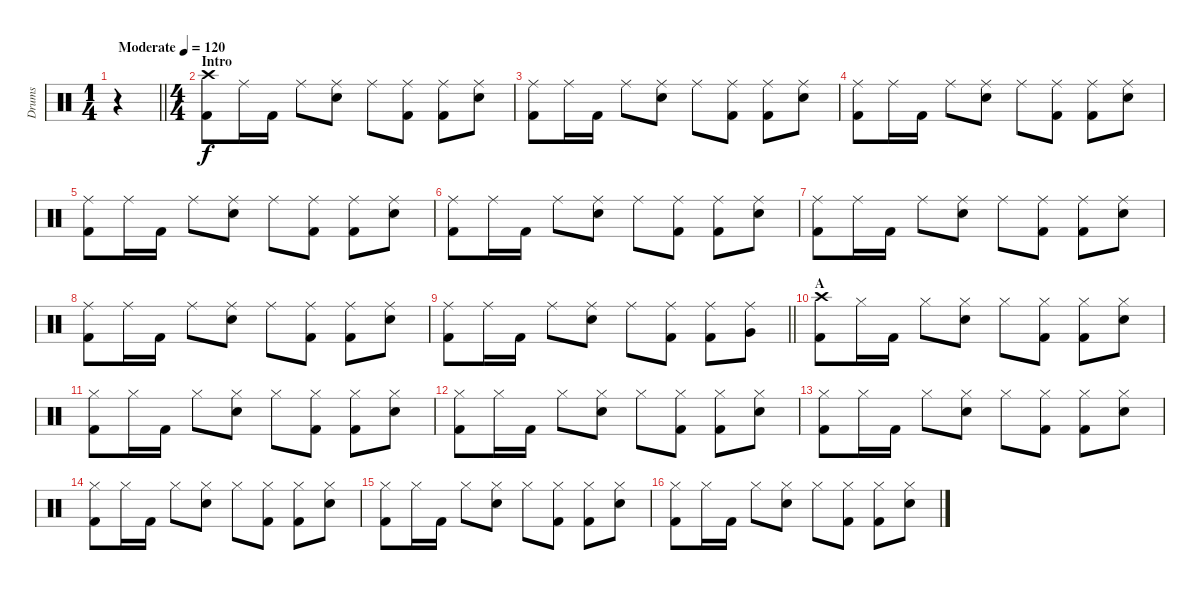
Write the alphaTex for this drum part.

\track ("Drums" "Drums") {instrument percussion}
\staff {score}
\articulation defaults
\ts (1 4)
\tempo (120 "Moderate")
\clef neutral
\barLineRight lightlight
\ks c
r.4{dy f} |
\ts (4 4)
\section ("" "Intro")
("Crash high (hit)" "Kick (hit) 2").8 "Ride (middle)".16 "Kick (hit) 2".16 "Ride (middle)".8 ("Ride (middle)" "Snare (hit) 2").8 "Ride (middle)".8 ("Ride (middle)" "Kick (hit) 2").8 ("Ride (middle)" "Kick (hit) 2").8 ("Ride (middle)" "Snare (hit) 2").8 |
("Ride (middle)" "Kick (hit) 2").8 "Ride (middle)".16 "Kick (hit) 2".16 "Ride (middle)".8 ("Ride (middle)" "Snare (hit) 2").8 "Ride (middle)".8 ("Ride (middle)" "Kick (hit) 2").8 ("Ride (middle)" "Kick (hit) 2").8 ("Ride (middle)" "Snare (hit) 2").8 |
("Ride (middle)" "Kick (hit) 2").8 "Ride (middle)".16 "Kick (hit) 2".16 "Ride (middle)".8 ("Ride (middle)" "Snare (hit) 2").8 "Ride (middle)".8 ("Ride (middle)" "Kick (hit) 2").8 ("Ride (middle)" "Kick (hit) 2").8 ("Ride (middle)" "Snare (hit) 2").8 |
("Ride (middle)" "Kick (hit) 2").8 "Ride (middle)".16 "Kick (hit) 2".16 "Ride (middle)".8 ("Ride (middle)" "Snare (hit) 2").8 "Ride (middle)".8 ("Ride (middle)" "Kick (hit) 2").8 ("Ride (middle)" "Kick (hit) 2").8 ("Ride (middle)" "Snare (hit) 2").8 |
("Ride (middle)" "Kick (hit) 2").8 "Ride (middle)".16 "Kick (hit) 2".16 "Ride (middle)".8 ("Ride (middle)" "Snare (hit) 2").8 "Ride (middle)".8 ("Ride (middle)" "Kick (hit) 2").8 ("Ride (middle)" "Kick (hit) 2").8 ("Ride (middle)" "Snare (hit) 2").8 |
("Ride (middle)" "Kick (hit) 2").8 "Ride (middle)".16 "Kick (hit) 2".16 "Ride (middle)".8 ("Ride (middle)" "Snare (hit) 2").8 "Ride (middle)".8 ("Ride (middle)" "Kick (hit) 2").8 ("Ride (middle)" "Kick (hit) 2").8 ("Ride (middle)" "Snare (hit) 2").8 |
("Ride (middle)" "Kick (hit) 2").8 "Ride (middle)".16 "Kick (hit) 2".16 "Ride (middle)".8 ("Ride (middle)" "Snare (hit) 2").8 "Ride (middle)".8 ("Ride (middle)" "Kick (hit) 2").8 ("Ride (middle)" "Kick (hit) 2").8 ("Ride (middle)" "Snare (hit) 2").8 |
\barLineRight lightlight
("Ride (middle)" "Kick (hit) 2").8 "Ride (middle)".16 "Kick (hit) 2".16 "Ride (middle)".8 ("Ride (middle)" "Snare (hit) 2").8 "Ride (middle)".8 ("Ride (middle)" "Kick (hit) 2").8 ("Ride (middle)" "Kick (hit) 2").8 ("Ride (middle)" "Very Low Tom (hit)").8 |
\section ("" "A")
("Crash high (hit)" "Kick (hit) 2").8 "Hi-Hat (closed)".16 "Kick (hit) 2".16 "Hi-Hat (closed)".8 ("Hi-Hat (closed)" "Snare (hit) 2").8 "Hi-Hat (closed)".8 ("Hi-Hat (closed)" "Kick (hit) 2").8 ("Hi-Hat (closed)" "Kick (hit) 2").8 ("Hi-Hat (closed)" "Snare (hit) 2").8 |
("Hi-Hat (closed)" "Kick (hit) 2").8 "Hi-Hat (closed)".16 "Kick (hit) 2".16 "Hi-Hat (closed)".8 ("Hi-Hat (closed)" "Snare (hit) 2").8 "Hi-Hat (closed)".8 ("Hi-Hat (closed)" "Kick (hit) 2").8 ("Hi-Hat (closed)" "Kick (hit) 2").8 ("Hi-Hat (closed)" "Snare (hit) 2").8 |
("Hi-Hat (closed)" "Kick (hit) 2").8 "Hi-Hat (closed)".16 "Kick (hit) 2".16 "Hi-Hat (closed)".8 ("Hi-Hat (closed)" "Snare (hit) 2").8 "Hi-Hat (closed)".8 ("Hi-Hat (closed)" "Kick (hit) 2").8 ("Hi-Hat (closed)" "Kick (hit) 2").8 ("Hi-Hat (closed)" "Snare (hit) 2").8 |
("Hi-Hat (closed)" "Kick (hit) 2").8 "Hi-Hat (closed)".16 "Kick (hit) 2".16 "Hi-Hat (closed)".8 ("Hi-Hat (closed)" "Snare (hit) 2").8 "Hi-Hat (closed)".8 ("Hi-Hat (closed)" "Kick (hit) 2").8 ("Hi-Hat (closed)" "Kick (hit) 2").8 ("Hi-Hat (closed)" "Snare (hit) 2").8 |
("Hi-Hat (closed)" "Kick (hit) 2").8 "Hi-Hat (closed)".16 "Kick (hit) 2".16 "Hi-Hat (closed)".8 ("Hi-Hat (closed)" "Snare (hit) 2").8 "Hi-Hat (closed)".8 ("Hi-Hat (closed)" "Kick (hit) 2").8 ("Hi-Hat (closed)" "Kick (hit) 2").8 ("Hi-Hat (closed)" "Snare (hit) 2").8 |
("Hi-Hat (closed)" "Kick (hit) 2").8 "Hi-Hat (closed)".16 "Kick (hit) 2".16 "Hi-Hat (closed)".8 ("Hi-Hat (closed)" "Snare (hit) 2").8 "Hi-Hat (closed)".8 ("Hi-Hat (closed)" "Kick (hit) 2").8 ("Hi-Hat (closed)" "Kick (hit) 2").8 ("Hi-Hat (closed)" "Snare (hit) 2").8 |
("Hi-Hat (closed)" "Kick (hit) 2").8 "Hi-Hat (closed)".16 "Kick (hit) 2".16 "Hi-Hat (closed)".8 ("Hi-Hat (closed)" "Snare (hit) 2").8 "Hi-Hat (closed)".8 ("Hi-Hat (closed)" "Kick (hit) 2").8 ("Hi-Hat (closed)" "Kick (hit) 2").8 ("Hi-Hat (closed)" "Snare (hit) 2").8
